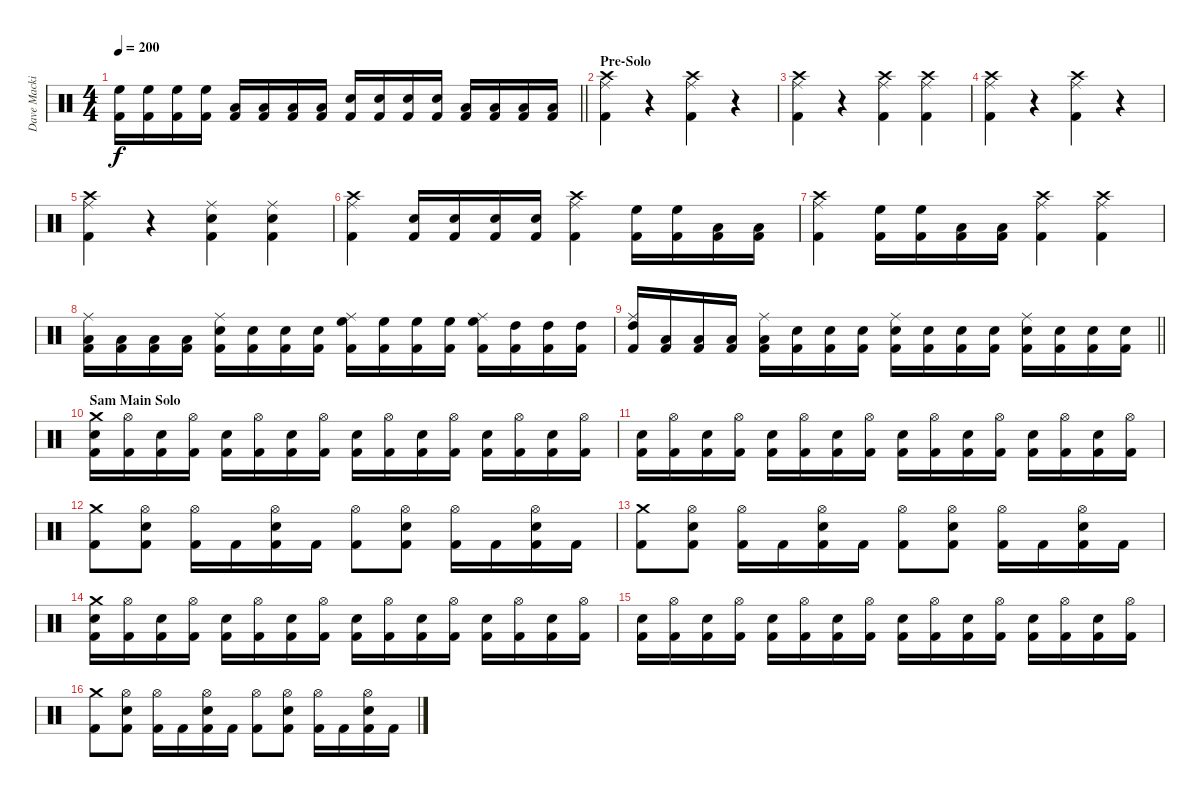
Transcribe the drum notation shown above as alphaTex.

\track ("Dave Mackintosh | Drums" "Dave Macki") {instrument percussion}
\staff {score}
\articulation defaults
\ts (4 4)
\tempo 200
\clef neutral
\barLineRight lightlight
\ks c
("High Floor Tom (hit)" "Kick (hit) 2").16{dy f} ("High Floor Tom (hit)" "Kick (hit) 2").16 ("High Floor Tom (hit)" "Kick (hit) 2").16 ("High Floor Tom (hit)" "Kick (hit) 2").16 ("Low Floor Tom (hit)" "Kick (hit) 2").16 ("Low Floor Tom (hit)" "Kick (hit) 2").16 ("Low Floor Tom (hit)" "Kick (hit) 2").16 ("Low Floor Tom (hit)" "Kick (hit) 2").16 ("Snare (hit) 2" "Kick (hit) 2").16 ("Snare (hit) 2" "Kick (hit) 2").16 ("Snare (hit) 2" "Kick (hit) 2").16 ("Snare (hit) 2" "Kick (hit) 2").16 ("Low Floor Tom (hit)" "Kick (hit) 2").16 ("Low Floor Tom (hit)" "Kick (hit) 2").16 ("Low Floor Tom (hit)" "Kick (hit) 2").16 ("Low Floor Tom (hit)" "Kick (hit) 2").16 |
\section ("" "Pre-Solo")
("Ride (middle)" "Crash high (hit)" "Kick (hit) 2").4 r.4 ("Ride (middle)" "Crash high (hit)" "Kick (hit) 2").4 r.4 |
("Ride (middle)" "Crash high (hit)" "Kick (hit) 2").4 r.4 ("Ride (middle)" "Crash high (hit)" "Kick (hit) 2").4 ("Ride (middle)" "Crash high (hit)" "Kick (hit) 2").4 |
("Ride (middle)" "Crash high (hit)" "Kick (hit) 2").4 r.4 ("Ride (middle)" "Crash high (hit)" "Kick (hit) 2").4 r.4 |
("Ride (middle)" "Crash high (hit)" "Kick (hit) 2").4 r.4 ("Ride (middle)" "Snare (hit) 2" "Kick (hit) 2").4 ("Ride (middle)" "Snare (hit) 2" "Kick (hit) 2").4 |
("Ride (middle)" "Crash high (hit)" "Kick (hit) 2").4 ("Snare (hit) 2" "Kick (hit) 2").16 ("Snare (hit) 2" "Kick (hit) 2").16 ("Snare (hit) 2" "Kick (hit) 2").16 ("Snare (hit) 2" "Kick (hit) 2").16 ("Ride (middle)" "Crash high (hit)" "Kick (hit) 2").4 ("High Floor Tom (hit)" "Kick (hit) 2").16 ("High Floor Tom (hit)" "Kick (hit) 2").16 ("Low Floor Tom (hit)" "Kick (hit) 2").16 ("Low Floor Tom (hit)" "Kick (hit) 2").16 |
("Ride (middle)" "Crash high (hit)" "Kick (hit) 2").4 ("High Floor Tom (hit)" "Kick (hit) 2").16 ("High Floor Tom (hit)" "Kick (hit) 2").16 ("Low Floor Tom (hit)" "Kick (hit) 2").16 ("Low Floor Tom (hit)" "Kick (hit) 2").16 ("Ride (middle)" "Crash high (hit)" "Kick (hit) 2").4 ("Ride (middle)" "Crash high (hit)" "Kick (hit) 2").4 |
("Ride (middle)" "Low Floor Tom (hit)" "Kick (hit) 2").16 ("Low Floor Tom (hit)" "Kick (hit) 2").16 ("Low Floor Tom (hit)" "Kick (hit) 2").16 ("Low Floor Tom (hit)" "Kick (hit) 2").16 ("Ride (middle)" "Snare (hit) 2" "Kick (hit) 2").16 ("Snare (hit) 2" "Kick (hit) 2").16 ("Snare (hit) 2" "Kick (hit) 2").16 ("Snare (hit) 2" "Kick (hit) 2").16 ("Ride (middle)" "High Floor Tom (hit)" "Kick (hit) 2").16 ("High Floor Tom (hit)" "Kick (hit) 2").16 ("High Floor Tom (hit)" "Kick (hit) 2").16 ("High Floor Tom (hit)" "Kick (hit) 2").16 ("Ride (middle)" "High Floor Tom (hit)" "Kick (hit) 2").16 ("High Tom (hit)" "Kick (hit) 2").16 ("High Tom (hit)" "Kick (hit) 2").16 ("High Tom (hit)" "Kick (hit) 2").16 |
\barLineRight lightlight
("Ride (middle)" "High Tom (hit)" "Kick (hit) 2").16 ("Low Floor Tom (hit)" "Kick (hit) 2").16 ("Low Floor Tom (hit)" "Kick (hit) 2").16 ("Low Floor Tom (hit)" "Kick (hit) 2").16 ("Ride (middle)" "Low Floor Tom (hit)" "Kick (hit) 2").16 ("Snare (hit) 2" "Kick (hit) 2").16 ("Snare (hit) 2" "Kick (hit) 2").16 ("Snare (hit) 2" "Kick (hit) 2").16 ("Ride (middle)" "Snare (hit) 2" "Kick (hit) 2").16 ("Snare (hit) 2" "Kick (hit) 2").16 ("Snare (hit) 2" "Kick (hit) 2").16 ("Snare (hit) 2" "Kick (hit) 2").16 ("Ride (middle)" "Snare (hit) 2" "Kick (hit) 2").16 ("Snare (hit) 2" "Kick (hit) 2").16 ("Snare (hit) 2" "Kick (hit) 2").16 ("Snare (hit) 2" "Kick (hit) 2").16 |
\section ("" "Sam Main Solo")
("Crash medium (hit)" "Snare (hit) 2" "Kick (hit) 2").16 ("Hi-Hat (open)" "Kick (hit) 2").16 ("Snare (hit) 2" "Kick (hit) 2").16 ("Hi-Hat (open)" "Kick (hit) 2").16 ("Snare (hit) 2" "Kick (hit) 2").16 ("Hi-Hat (open)" "Kick (hit) 2").16 ("Snare (hit) 2" "Kick (hit) 2").16 ("Hi-Hat (open)" "Kick (hit) 2").16 ("Snare (hit) 2" "Kick (hit) 2").16 ("Hi-Hat (open)" "Kick (hit) 2").16 ("Snare (hit) 2" "Kick (hit) 2").16 ("Hi-Hat (open)" "Kick (hit) 2").16 ("Snare (hit) 2" "Kick (hit) 2").16 ("Hi-Hat (open)" "Kick (hit) 2").16 ("Snare (hit) 2" "Kick (hit) 2").16 ("Hi-Hat (open)" "Kick (hit) 2").16 |
("Snare (hit) 2" "Kick (hit) 2").16 ("Hi-Hat (open)" "Kick (hit) 2").16 ("Snare (hit) 2" "Kick (hit) 2").16 ("Hi-Hat (open)" "Kick (hit) 2").16 ("Snare (hit) 2" "Kick (hit) 2").16 ("Hi-Hat (open)" "Kick (hit) 2").16 ("Snare (hit) 2" "Kick (hit) 2").16 ("Hi-Hat (open)" "Kick (hit) 2").16 ("Snare (hit) 2" "Kick (hit) 2").16 ("Hi-Hat (open)" "Kick (hit) 2").16 ("Snare (hit) 2" "Kick (hit) 2").16 ("Hi-Hat (open)" "Kick (hit) 2").16 ("Snare (hit) 2" "Kick (hit) 2").16 ("Hi-Hat (open)" "Kick (hit) 2").16 ("Snare (hit) 2" "Kick (hit) 2").16 ("Hi-Hat (open)" "Kick (hit) 2").16 |
("Crash medium (hit)" "Kick (hit) 2").8 ("Hi-Hat (open)" "Snare (hit) 2" "Kick (hit) 2").8 ("Hi-Hat (open)" "Kick (hit) 2").16 "Kick (hit) 2".16 ("Hi-Hat (open)" "Snare (hit) 2" "Kick (hit) 2").16 "Kick (hit) 2".16 ("Hi-Hat (open)" "Kick (hit) 2").8 ("Hi-Hat (open)" "Snare (hit) 2" "Kick (hit) 2").8 ("Hi-Hat (open)" "Kick (hit) 2").16 "Kick (hit) 2".16 ("Hi-Hat (open)" "Snare (hit) 2" "Kick (hit) 2").16 "Kick (hit) 2".16 |
("Crash medium (hit)" "Kick (hit) 2").8 ("Hi-Hat (open)" "Snare (hit) 2" "Kick (hit) 2").8 ("Hi-Hat (open)" "Kick (hit) 2").16 "Kick (hit) 2".16 ("Hi-Hat (open)" "Snare (hit) 2" "Kick (hit) 2").16 "Kick (hit) 2".16 ("Hi-Hat (open)" "Kick (hit) 2").8 ("Hi-Hat (open)" "Snare (hit) 2" "Kick (hit) 2").8 ("Hi-Hat (open)" "Kick (hit) 2").16 "Kick (hit) 2".16 ("Hi-Hat (open)" "Snare (hit) 2" "Kick (hit) 2").16 "Kick (hit) 2".16 |
("Crash medium (hit)" "Snare (hit) 2" "Kick (hit) 2").16 ("Hi-Hat (open)" "Kick (hit) 2").16 ("Snare (hit) 2" "Kick (hit) 2").16 ("Hi-Hat (open)" "Kick (hit) 2").16 ("Snare (hit) 2" "Kick (hit) 2").16 ("Hi-Hat (open)" "Kick (hit) 2").16 ("Snare (hit) 2" "Kick (hit) 2").16 ("Hi-Hat (open)" "Kick (hit) 2").16 ("Snare (hit) 2" "Kick (hit) 2").16 ("Hi-Hat (open)" "Kick (hit) 2").16 ("Snare (hit) 2" "Kick (hit) 2").16 ("Hi-Hat (open)" "Kick (hit) 2").16 ("Snare (hit) 2" "Kick (hit) 2").16 ("Hi-Hat (open)" "Kick (hit) 2").16 ("Snare (hit) 2" "Kick (hit) 2").16 ("Hi-Hat (open)" "Kick (hit) 2").16 |
("Snare (hit) 2" "Kick (hit) 2").16 ("Hi-Hat (open)" "Kick (hit) 2").16 ("Snare (hit) 2" "Kick (hit) 2").16 ("Hi-Hat (open)" "Kick (hit) 2").16 ("Snare (hit) 2" "Kick (hit) 2").16 ("Hi-Hat (open)" "Kick (hit) 2").16 ("Snare (hit) 2" "Kick (hit) 2").16 ("Hi-Hat (open)" "Kick (hit) 2").16 ("Snare (hit) 2" "Kick (hit) 2").16 ("Hi-Hat (open)" "Kick (hit) 2").16 ("Snare (hit) 2" "Kick (hit) 2").16 ("Hi-Hat (open)" "Kick (hit) 2").16 ("Snare (hit) 2" "Kick (hit) 2").16 ("Hi-Hat (open)" "Kick (hit) 2").16 ("Snare (hit) 2" "Kick (hit) 2").16 ("Hi-Hat (open)" "Kick (hit) 2").16 |
("Crash medium (hit)" "Kick (hit) 2").8 ("Hi-Hat (open)" "Snare (hit) 2" "Kick (hit) 2").8 ("Hi-Hat (open)" "Kick (hit) 2").16 "Kick (hit) 2".16 ("Hi-Hat (open)" "Snare (hit) 2" "Kick (hit) 2").16 "Kick (hit) 2".16 ("Hi-Hat (open)" "Kick (hit) 2").8 ("Hi-Hat (open)" "Snare (hit) 2" "Kick (hit) 2").8 ("Hi-Hat (open)" "Kick (hit) 2").16 "Kick (hit) 2".16 ("Hi-Hat (open)" "Snare (hit) 2" "Kick (hit) 2").16 "Kick (hit) 2".16
